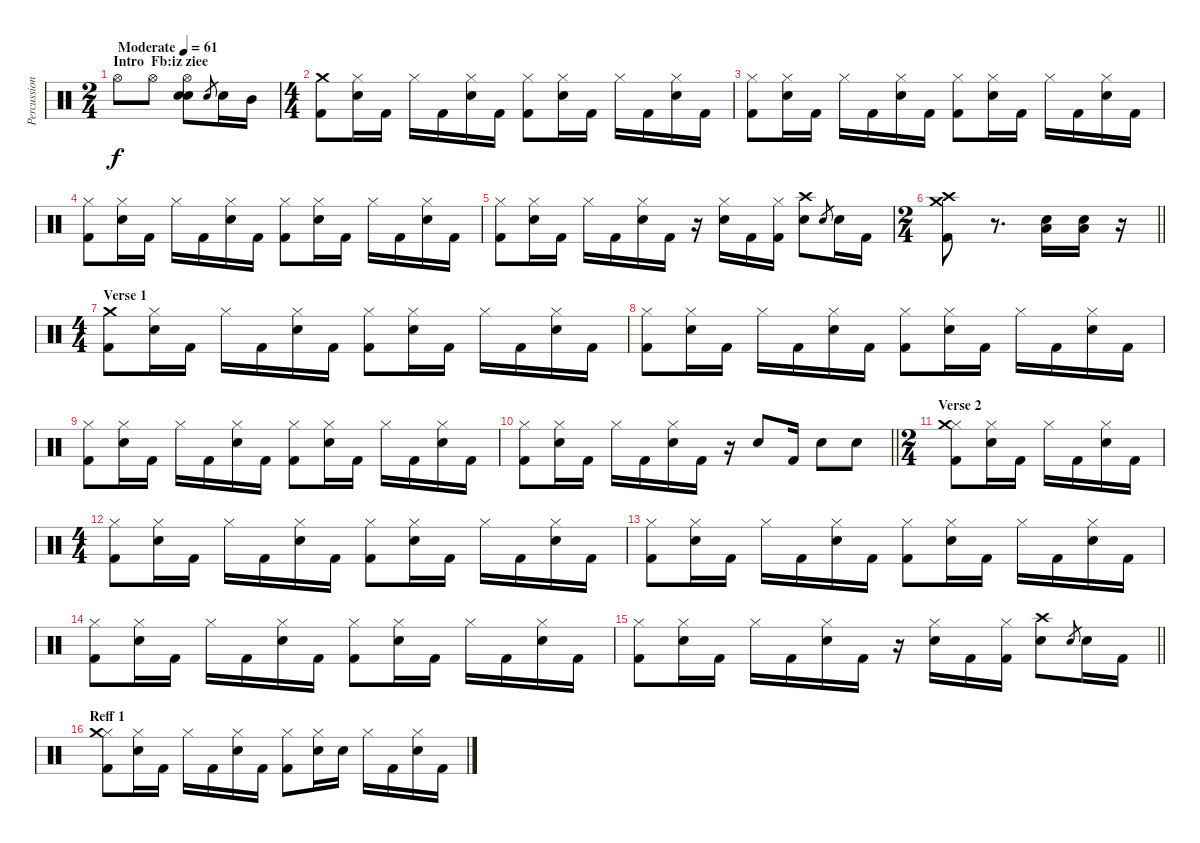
\track ("Percussion 1" "Percussion") {instrument percussion}
\staff {score}
\articulation defaults
\ts (2 4)
\section ("" "Intro  Fb:iz ziee")
\tempo (61 "Moderate")
\clef neutral
\ks c "Hi-Hat (open)".8{dy f} "Hi-Hat (open)".8
("Snare (hit) 2" "Snare (hit) 2" "Hi-Hat (open)").8{bd 120} "Snare (hit) 2".8{gr} "Snare (hit) 2".16 "Mid Tom (hit)".16 |
\ts (4 4)
("Crash medium (hit)" "Kick (hit) 2").8 ("Hi-Hat (closed)" "Snare (hit) 2").16 "Kick (hit) 2".16 "Hi-Hat (closed)".16 "Kick (hit) 2".16 ("Hi-Hat (closed)" "Snare (hit) 2").16 "Kick (hit) 2".16 ("Hi-Hat (closed)" "Kick (hit) 2").8 ("Hi-Hat (closed)" "Snare (hit) 2").16 "Kick (hit) 2".16 "Hi-Hat (closed)".16 "Kick (hit) 2".16 ("Hi-Hat (closed)" "Snare (hit) 2").16 "Kick (hit) 2".16 |
("Hi-Hat (closed)" "Kick (hit) 2").8 ("Hi-Hat (closed)" "Snare (hit) 2").16 "Kick (hit) 2".16 "Hi-Hat (closed)".16 "Kick (hit) 2".16 ("Hi-Hat (closed)" "Snare (hit) 2").16 "Kick (hit) 2".16 ("Hi-Hat (closed)" "Kick (hit) 2").8 ("Hi-Hat (closed)" "Snare (hit) 2").16 "Kick (hit) 2".16 "Hi-Hat (closed)".16 "Kick (hit) 2".16 ("Hi-Hat (closed)" "Snare (hit) 2").16 "Kick (hit) 2".16 |
("Hi-Hat (closed)" "Kick (hit) 2").8 ("Hi-Hat (closed)" "Snare (hit) 2").16 "Kick (hit) 2".16 "Hi-Hat (closed)".16 "Kick (hit) 2".16 ("Hi-Hat (closed)" "Snare (hit) 2").16 "Kick (hit) 2".16 ("Hi-Hat (closed)" "Kick (hit) 2").8 ("Hi-Hat (closed)" "Snare (hit) 2").16 "Kick (hit) 2".16 "Hi-Hat (closed)".16 "Kick (hit) 2".16 ("Hi-Hat (closed)" "Snare (hit) 2").16 "Kick (hit) 2".16 |
("Hi-Hat (closed)" "Kick (hit) 2").8 ("Hi-Hat (closed)" "Snare (hit) 2").16 "Kick (hit) 2".16 "Hi-Hat (closed)".16 "Kick (hit) 2".16 ("Hi-Hat (closed)" "Snare (hit) 2").16 "Kick (hit) 2".16 r.16 ("Hi-Hat (closed)" "Snare (hit) 2").16 "Kick (hit) 2".16 ("Hi-Hat (closed)" "Kick (hit) 2").16 ("Crash high (hit)" "Snare (hit) 2").8 "Snare (hit) 2".8{gr} "Snare (hit) 2".16 "Kick (hit) 2".16 |
\ts (2 4)
\barLineRight lightlight
("Crash high (hit)" "Crash medium (hit)" "Kick (hit) 2").8 r.8{d} ("Snare (hit) 2" "Low Floor Tom (hit)").16 ("Snare (hit) 2" "Low Floor Tom (hit)").16 r.16 |
\ts (4 4)
\section ("" "Verse 1")
("Crash medium (hit)" "Kick (hit) 2").8 ("Hi-Hat (closed)" "Snare (hit) 2").16 "Kick (hit) 2".16 "Hi-Hat (closed)".16 "Kick (hit) 2".16 ("Hi-Hat (closed)" "Snare (hit) 2").16 "Kick (hit) 2".16 ("Hi-Hat (closed)" "Kick (hit) 2").8 ("Hi-Hat (closed)" "Snare (hit) 2").16 "Kick (hit) 2".16 "Hi-Hat (closed)".16 "Kick (hit) 2".16 ("Hi-Hat (closed)" "Snare (hit) 2").16 "Kick (hit) 2".16 |
("Hi-Hat (closed)" "Kick (hit) 2").8 ("Hi-Hat (closed)" "Snare (hit) 2").16 "Kick (hit) 2".16 "Hi-Hat (closed)".16 "Kick (hit) 2".16 ("Hi-Hat (closed)" "Snare (hit) 2").16 "Kick (hit) 2".16 ("Hi-Hat (closed)" "Kick (hit) 2").8 ("Hi-Hat (closed)" "Snare (hit) 2").16 "Kick (hit) 2".16 "Hi-Hat (closed)".16 "Kick (hit) 2".16 ("Hi-Hat (closed)" "Snare (hit) 2").16 "Kick (hit) 2".16 |
("Hi-Hat (closed)" "Kick (hit) 2").8 ("Hi-Hat (closed)" "Snare (hit) 2").16 "Kick (hit) 2".16 "Hi-Hat (closed)".16 "Kick (hit) 2".16 ("Hi-Hat (closed)" "Snare (hit) 2").16 "Kick (hit) 2".16 ("Hi-Hat (closed)" "Kick (hit) 2").8 ("Hi-Hat (closed)" "Snare (hit) 2").16 "Kick (hit) 2".16 "Hi-Hat (closed)".16 "Kick (hit) 2".16 ("Hi-Hat (closed)" "Snare (hit) 2").16 "Kick (hit) 2".16 |
\barLineRight lightlight
("Hi-Hat (closed)" "Kick (hit) 2").8 ("Hi-Hat (closed)" "Snare (hit) 2").16 "Kick (hit) 2".16 "Hi-Hat (closed)".16 "Kick (hit) 2".16 ("Hi-Hat (closed)" "Snare (hit) 2").16 "Kick (hit) 2".16 r.16 "Snare (hit) 2".8 "Kick (hit) 2".16 "Snare (hit) 2".8 "Snare (hit) 2".8 |
\ts (2 4)
\section ("" "Verse 2")
("Hi-Hat (closed)" "Crash medium (hit)" "Kick (hit) 2").8 ("Hi-Hat (closed)" "Snare (hit) 2").16 "Kick (hit) 2".16 "Hi-Hat (closed)".16 "Kick (hit) 2".16 ("Hi-Hat (closed)" "Snare (hit) 2").16 "Kick (hit) 2".16 |
\ts (4 4)
("Hi-Hat (closed)" "Kick (hit) 2").8 ("Hi-Hat (closed)" "Snare (hit) 2").16 "Kick (hit) 2".16 "Hi-Hat (closed)".16 "Kick (hit) 2".16 ("Hi-Hat (closed)" "Snare (hit) 2").16 "Kick (hit) 2".16 ("Hi-Hat (closed)" "Kick (hit) 2").8 ("Hi-Hat (closed)" "Snare (hit) 2").16 "Kick (hit) 2".16 "Hi-Hat (closed)".16 "Kick (hit) 2".16 ("Hi-Hat (closed)" "Snare (hit) 2").16 "Kick (hit) 2".16 |
("Hi-Hat (closed)" "Kick (hit) 2").8 ("Hi-Hat (closed)" "Snare (hit) 2").16 "Kick (hit) 2".16 "Hi-Hat (closed)".16 "Kick (hit) 2".16 ("Hi-Hat (closed)" "Snare (hit) 2").16 "Kick (hit) 2".16 ("Hi-Hat (closed)" "Kick (hit) 2").8 ("Hi-Hat (closed)" "Snare (hit) 2").16 "Kick (hit) 2".16 "Hi-Hat (closed)".16 "Kick (hit) 2".16 ("Hi-Hat (closed)" "Snare (hit) 2").16 "Kick (hit) 2".16 |
("Hi-Hat (closed)" "Kick (hit) 2").8 ("Hi-Hat (closed)" "Snare (hit) 2").16 "Kick (hit) 2".16 "Hi-Hat (closed)".16 "Kick (hit) 2".16 ("Hi-Hat (closed)" "Snare (hit) 2").16 "Kick (hit) 2".16 ("Hi-Hat (closed)" "Kick (hit) 2").8 ("Hi-Hat (closed)" "Snare (hit) 2").16 "Kick (hit) 2".16 "Hi-Hat (closed)".16 "Kick (hit) 2".16 ("Hi-Hat (closed)" "Snare (hit) 2").16 "Kick (hit) 2".16 |
\barLineRight lightlight
("Hi-Hat (closed)" "Kick (hit) 2").8 ("Hi-Hat (closed)" "Snare (hit) 2").16 "Kick (hit) 2".16 "Hi-Hat (closed)".16 "Kick (hit) 2".16 ("Hi-Hat (closed)" "Snare (hit) 2").16 "Kick (hit) 2".16 r.16 ("Hi-Hat (closed)" "Snare (hit) 2").16 "Kick (hit) 2".16 ("Hi-Hat (closed)" "Kick (hit) 2").16 ("Crash high (hit)" "Snare (hit) 2").8 "Snare (hit) 2".8{gr} "Snare (hit) 2".16 "Kick (hit) 2".16 |
\section ("" "Reff 1")
("Hi-Hat (closed)" "Crash medium (hit)" "Kick (hit) 2").8 ("Hi-Hat (closed)" "Snare (hit) 2").16 "Kick (hit) 2".16 "Hi-Hat (closed)".16 "Kick (hit) 2".16 ("Hi-Hat (closed)" "Snare (hit) 2").16 "Kick (hit) 2".16 ("Hi-Hat (closed)" "Kick (hit) 2").8 ("Hi-Hat (closed)" "Snare (hit) 2").16 "Snare (hit) 2".16 "Hi-Hat (closed)".16 "Kick (hit) 2".16 ("Hi-Hat (closed)" "Snare (hit) 2").16 "Kick (hit) 2".16
